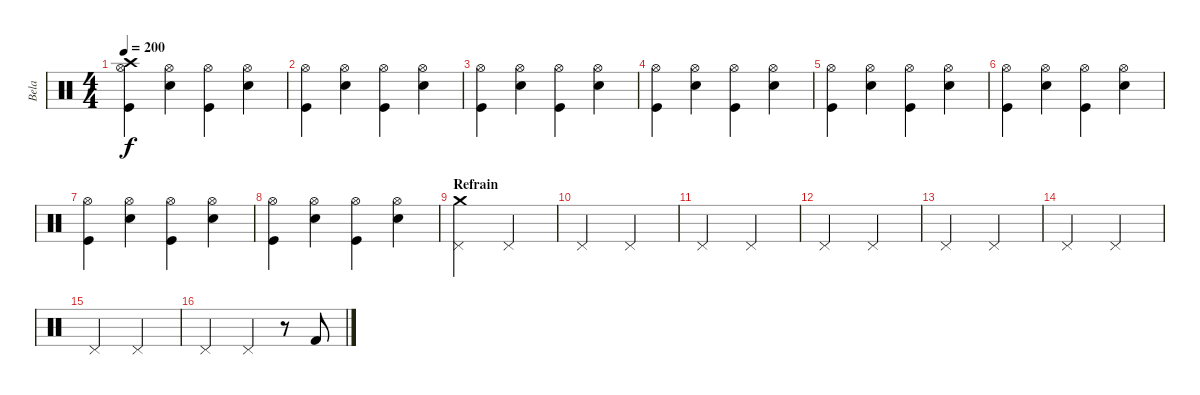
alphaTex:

\track ("Bela" "Bela") {instrument percussion}
\staff {score}
\articulation defaults
\ts (4 4)
\tempo 200
\clef neutral
\ks c
("Hi-Hat (open)" "Crash high (hit)" "Kick (hit)").4{dy f} ("Hi-Hat (open)" "Electric Snare (hit)").4 ("Hi-Hat (open)" "Kick (hit)").4 ("Hi-Hat (open)" "Electric Snare (hit)").4 |
("Hi-Hat (open)" "Kick (hit)").4 ("Hi-Hat (open)" "Electric Snare (hit)").4 ("Hi-Hat (open)" "Kick (hit)").4 ("Hi-Hat (open)" "Electric Snare (hit)").4 |
("Hi-Hat (open)" "Kick (hit)").4 ("Hi-Hat (open)" "Electric Snare (hit)").4 ("Hi-Hat (open)" "Kick (hit)").4 ("Hi-Hat (open)" "Electric Snare (hit)").4 |
("Hi-Hat (open)" "Kick (hit)").4 ("Hi-Hat (open)" "Electric Snare (hit)").4 ("Hi-Hat (open)" "Kick (hit)").4 ("Hi-Hat (open)" "Electric Snare (hit)").4 |
("Hi-Hat (open)" "Kick (hit)").4 ("Hi-Hat (open)" "Electric Snare (hit)").4 ("Hi-Hat (open)" "Kick (hit)").4 ("Hi-Hat (open)" "Electric Snare (hit)").4 |
("Hi-Hat (open)" "Kick (hit)").4 ("Hi-Hat (open)" "Electric Snare (hit)").4 ("Hi-Hat (open)" "Kick (hit)").4 ("Hi-Hat (open)" "Electric Snare (hit)").4 |
("Hi-Hat (open)" "Kick (hit)").4 ("Hi-Hat (open)" "Electric Snare (hit)").4 ("Hi-Hat (open)" "Kick (hit)").4 ("Hi-Hat (open)" "Electric Snare (hit)").4 |
("Hi-Hat (open)" "Kick (hit)").4 ("Hi-Hat (open)" "Electric Snare (hit)").4 ("Hi-Hat (open)" "Kick (hit)").4 ("Hi-Hat (open)" "Electric Snare (hit)").4 |
\section ("" "Refrain")
("Pedal Hi-Hat (hit)" "Crash medium (hit)").2 "Pedal Hi-Hat (hit)".2 |
"Pedal Hi-Hat (hit)".2 "Pedal Hi-Hat (hit)".2 |
"Pedal Hi-Hat (hit)".2 "Pedal Hi-Hat (hit)".2 |
"Pedal Hi-Hat (hit)".2 "Pedal Hi-Hat (hit)".2 |
"Pedal Hi-Hat (hit)".2 "Pedal Hi-Hat (hit)".2 |
"Pedal Hi-Hat (hit)".2 "Pedal Hi-Hat (hit)".2 |
"Pedal Hi-Hat (hit)".2 "Pedal Hi-Hat (hit)".2 |
"Pedal Hi-Hat (hit)".2 "Pedal Hi-Hat (hit)".4 r.8 "Kick (hit) 2".8
